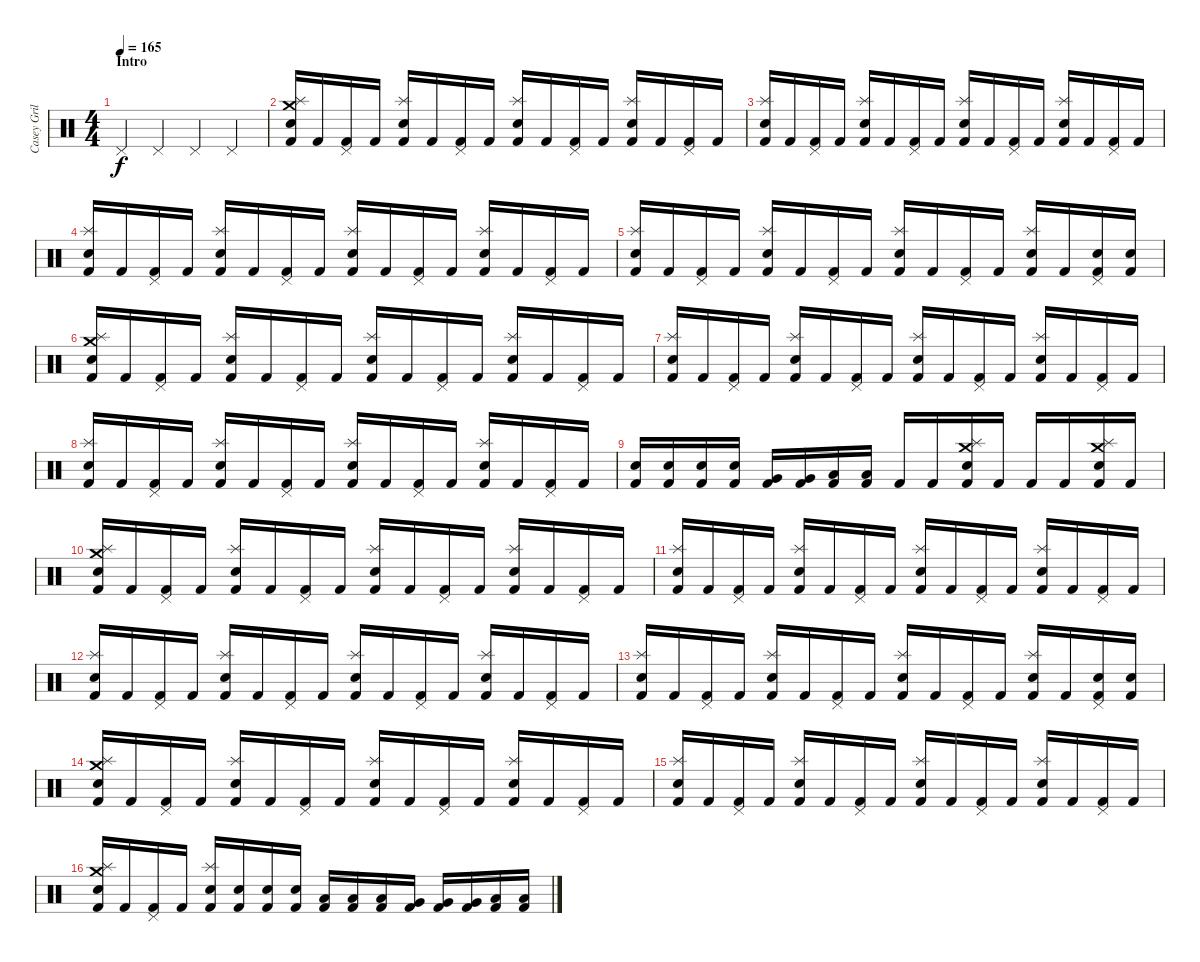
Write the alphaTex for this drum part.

\track ("Casey Grillo" "Casey Gril") {instrument percussion}
\staff {score}
\articulation defaults
\ts (4 4)
\section ("" "Intro")
\tempo 165
\clef neutral
\ks c "Pedal Hi-Hat (hit)".4{dy f} "Pedal Hi-Hat (hit)".4 "Pedal Hi-Hat (hit)".4 "Pedal Hi-Hat (hit)".4
|
("Electric Snare (hit)" "Splash (hit)" "Crash medium (hit)" "Kick (hit) 2").16 "Kick (hit) 2".16 ("Pedal Hi-Hat (hit)" "Kick (hit) 2").16 "Kick (hit) 2".16 ("Electric Snare (hit)" "Splash (hit)" "Kick (hit) 2").16 "Kick (hit) 2".16 ("Pedal Hi-Hat (hit)" "Kick (hit) 2").16 "Kick (hit) 2".16 ("Electric Snare (hit)" "Splash (hit)" "Kick (hit) 2").16 "Kick (hit) 2".16 ("Pedal Hi-Hat (hit)" "Kick (hit) 2").16 "Kick (hit) 2".16 ("Electric Snare (hit)" "Splash (hit)" "Kick (hit) 2").16 "Kick (hit) 2".16 ("Pedal Hi-Hat (hit)" "Kick (hit) 2").16 "Kick (hit) 2".16 |
("Electric Snare (hit)" "Splash (hit)" "Kick (hit) 2").16 "Kick (hit) 2".16 ("Pedal Hi-Hat (hit)" "Kick (hit) 2").16 "Kick (hit) 2".16 ("Electric Snare (hit)" "Splash (hit)" "Kick (hit) 2").16 "Kick (hit) 2".16 ("Pedal Hi-Hat (hit)" "Kick (hit) 2").16 "Kick (hit) 2".16 ("Electric Snare (hit)" "Splash (hit)" "Kick (hit) 2").16 "Kick (hit) 2".16 ("Pedal Hi-Hat (hit)" "Kick (hit) 2").16 "Kick (hit) 2".16 ("Electric Snare (hit)" "Splash (hit)" "Kick (hit) 2").16 "Kick (hit) 2".16 ("Pedal Hi-Hat (hit)" "Kick (hit) 2").16 "Kick (hit) 2".16 |
("Electric Snare (hit)" "Splash (hit)" "Kick (hit) 2").16 "Kick (hit) 2".16 ("Pedal Hi-Hat (hit)" "Kick (hit) 2").16 "Kick (hit) 2".16 ("Electric Snare (hit)" "Splash (hit)" "Kick (hit) 2").16 "Kick (hit) 2".16 ("Pedal Hi-Hat (hit)" "Kick (hit) 2").16 "Kick (hit) 2".16 ("Electric Snare (hit)" "Splash (hit)" "Kick (hit) 2").16 "Kick (hit) 2".16 ("Pedal Hi-Hat (hit)" "Kick (hit) 2").16 "Kick (hit) 2".16 ("Electric Snare (hit)" "Splash (hit)" "Kick (hit) 2").16 "Kick (hit) 2".16 ("Pedal Hi-Hat (hit)" "Kick (hit) 2").16 "Kick (hit) 2".16 |
("Electric Snare (hit)" "Splash (hit)" "Kick (hit) 2").16 "Kick (hit) 2".16 ("Pedal Hi-Hat (hit)" "Kick (hit) 2").16 "Kick (hit) 2".16 ("Electric Snare (hit)" "Splash (hit)" "Kick (hit) 2").16 "Kick (hit) 2".16 ("Pedal Hi-Hat (hit)" "Kick (hit) 2").16 "Kick (hit) 2".16 ("Electric Snare (hit)" "Splash (hit)" "Kick (hit) 2").16 "Kick (hit) 2".16 ("Pedal Hi-Hat (hit)" "Kick (hit) 2").16 "Kick (hit) 2".16 ("Electric Snare (hit)" "Splash (hit)" "Kick (hit) 2").16 "Kick (hit) 2".16 ("Electric Snare (hit)" "Pedal Hi-Hat (hit)" "Kick (hit) 2").16 ("Electric Snare (hit)" "Kick (hit) 2").16 |
("Electric Snare (hit)" "Splash (hit)" "Crash medium (hit)" "Kick (hit) 2").16 "Kick (hit) 2".16 ("Pedal Hi-Hat (hit)" "Kick (hit) 2").16 "Kick (hit) 2".16 ("Electric Snare (hit)" "Splash (hit)" "Kick (hit) 2").16 "Kick (hit) 2".16 ("Pedal Hi-Hat (hit)" "Kick (hit) 2").16 "Kick (hit) 2".16 ("Electric Snare (hit)" "Splash (hit)" "Kick (hit) 2").16 "Kick (hit) 2".16 ("Pedal Hi-Hat (hit)" "Kick (hit) 2").16 "Kick (hit) 2".16 ("Electric Snare (hit)" "Splash (hit)" "Kick (hit) 2").16 "Kick (hit) 2".16 ("Pedal Hi-Hat (hit)" "Kick (hit) 2").16 "Kick (hit) 2".16 |
("Electric Snare (hit)" "Splash (hit)" "Kick (hit) 2").16 "Kick (hit) 2".16 ("Pedal Hi-Hat (hit)" "Kick (hit) 2").16 "Kick (hit) 2".16 ("Electric Snare (hit)" "Splash (hit)" "Kick (hit) 2").16 "Kick (hit) 2".16 ("Pedal Hi-Hat (hit)" "Kick (hit) 2").16 "Kick (hit) 2".16 ("Electric Snare (hit)" "Splash (hit)" "Kick (hit) 2").16 "Kick (hit) 2".16 ("Pedal Hi-Hat (hit)" "Kick (hit) 2").16 "Kick (hit) 2".16 ("Electric Snare (hit)" "Splash (hit)" "Kick (hit) 2").16 "Kick (hit) 2".16 ("Pedal Hi-Hat (hit)" "Kick (hit) 2").16 "Kick (hit) 2".16 |
("Electric Snare (hit)" "Splash (hit)" "Kick (hit) 2").16 "Kick (hit) 2".16 ("Pedal Hi-Hat (hit)" "Kick (hit) 2").16 "Kick (hit) 2".16 ("Electric Snare (hit)" "Splash (hit)" "Kick (hit) 2").16 "Kick (hit) 2".16 ("Pedal Hi-Hat (hit)" "Kick (hit) 2").16 "Kick (hit) 2".16 ("Electric Snare (hit)" "Splash (hit)" "Kick (hit) 2").16 "Kick (hit) 2".16 ("Pedal Hi-Hat (hit)" "Kick (hit) 2").16 "Kick (hit) 2".16 ("Electric Snare (hit)" "Splash (hit)" "Kick (hit) 2").16 "Kick (hit) 2".16 ("Pedal Hi-Hat (hit)" "Kick (hit) 2").16 "Kick (hit) 2".16 |
("Electric Snare (hit)" "Kick (hit) 2").16 ("Electric Snare (hit)" "Kick (hit) 2").16 ("Electric Snare (hit)" "Kick (hit) 2").16 ("Electric Snare (hit)" "Kick (hit) 2").16 ("Very Low Tom (hit)" "Kick (hit) 2").16 ("Very Low Tom (hit)" "Kick (hit) 2").16 ("Low Floor Tom (hit)" "Kick (hit) 2").16 ("Low Floor Tom (hit)" "Kick (hit) 2").16 "Kick (hit) 2".16 "Kick (hit) 2".16 ("Electric Snare (hit)" "Splash (hit)" "Crash medium (hit)" "Kick (hit) 2").16 "Kick (hit) 2".16 "Kick (hit) 2".16 "Kick (hit) 2".16 ("Electric Snare (hit)" "Splash (hit)" "Crash medium (hit)" "Kick (hit) 2").16 "Kick (hit) 2".16 |
("Electric Snare (hit)" "Splash (hit)" "Crash medium (hit)" "Kick (hit) 2").16 "Kick (hit) 2".16 ("Pedal Hi-Hat (hit)" "Kick (hit) 2").16 "Kick (hit) 2".16 ("Electric Snare (hit)" "Splash (hit)" "Kick (hit) 2").16 "Kick (hit) 2".16 ("Pedal Hi-Hat (hit)" "Kick (hit) 2").16 "Kick (hit) 2".16 ("Electric Snare (hit)" "Splash (hit)" "Kick (hit) 2").16 "Kick (hit) 2".16 ("Pedal Hi-Hat (hit)" "Kick (hit) 2").16 "Kick (hit) 2".16 ("Electric Snare (hit)" "Splash (hit)" "Kick (hit) 2").16 "Kick (hit) 2".16 ("Pedal Hi-Hat (hit)" "Kick (hit) 2").16 "Kick (hit) 2".16 |
("Electric Snare (hit)" "Splash (hit)" "Kick (hit) 2").16 "Kick (hit) 2".16 ("Pedal Hi-Hat (hit)" "Kick (hit) 2").16 "Kick (hit) 2".16 ("Electric Snare (hit)" "Splash (hit)" "Kick (hit) 2").16 "Kick (hit) 2".16 ("Pedal Hi-Hat (hit)" "Kick (hit) 2").16 "Kick (hit) 2".16 ("Electric Snare (hit)" "Splash (hit)" "Kick (hit) 2").16 "Kick (hit) 2".16 ("Pedal Hi-Hat (hit)" "Kick (hit) 2").16 "Kick (hit) 2".16 ("Electric Snare (hit)" "Splash (hit)" "Kick (hit) 2").16 "Kick (hit) 2".16 ("Pedal Hi-Hat (hit)" "Kick (hit) 2").16 "Kick (hit) 2".16 |
("Electric Snare (hit)" "Splash (hit)" "Kick (hit) 2").16 "Kick (hit) 2".16 ("Pedal Hi-Hat (hit)" "Kick (hit) 2").16 "Kick (hit) 2".16 ("Electric Snare (hit)" "Splash (hit)" "Kick (hit) 2").16 "Kick (hit) 2".16 ("Pedal Hi-Hat (hit)" "Kick (hit) 2").16 "Kick (hit) 2".16 ("Electric Snare (hit)" "Splash (hit)" "Kick (hit) 2").16 "Kick (hit) 2".16 ("Pedal Hi-Hat (hit)" "Kick (hit) 2").16 "Kick (hit) 2".16 ("Electric Snare (hit)" "Splash (hit)" "Kick (hit) 2").16 "Kick (hit) 2".16 ("Pedal Hi-Hat (hit)" "Kick (hit) 2").16 "Kick (hit) 2".16 |
("Electric Snare (hit)" "Splash (hit)" "Kick (hit) 2").16 "Kick (hit) 2".16 ("Pedal Hi-Hat (hit)" "Kick (hit) 2").16 "Kick (hit) 2".16 ("Electric Snare (hit)" "Splash (hit)" "Kick (hit) 2").16 "Kick (hit) 2".16 ("Pedal Hi-Hat (hit)" "Kick (hit) 2").16 "Kick (hit) 2".16 ("Electric Snare (hit)" "Splash (hit)" "Kick (hit) 2").16 "Kick (hit) 2".16 ("Pedal Hi-Hat (hit)" "Kick (hit) 2").16 "Kick (hit) 2".16 ("Electric Snare (hit)" "Splash (hit)" "Kick (hit) 2").16 "Kick (hit) 2".16 ("Electric Snare (hit)" "Pedal Hi-Hat (hit)" "Kick (hit) 2").16 ("Electric Snare (hit)" "Kick (hit) 2").16 |
("Electric Snare (hit)" "Splash (hit)" "Crash medium (hit)" "Kick (hit) 2").16 "Kick (hit) 2".16 ("Pedal Hi-Hat (hit)" "Kick (hit) 2").16 "Kick (hit) 2".16 ("Electric Snare (hit)" "Splash (hit)" "Kick (hit) 2").16 "Kick (hit) 2".16 ("Pedal Hi-Hat (hit)" "Kick (hit) 2").16 "Kick (hit) 2".16 ("Electric Snare (hit)" "Splash (hit)" "Kick (hit) 2").16 "Kick (hit) 2".16 ("Pedal Hi-Hat (hit)" "Kick (hit) 2").16 "Kick (hit) 2".16 ("Electric Snare (hit)" "Splash (hit)" "Kick (hit) 2").16 "Kick (hit) 2".16 ("Pedal Hi-Hat (hit)" "Kick (hit) 2").16 "Kick (hit) 2".16 |
("Electric Snare (hit)" "Splash (hit)" "Kick (hit) 2").16 "Kick (hit) 2".16 ("Pedal Hi-Hat (hit)" "Kick (hit) 2").16 "Kick (hit) 2".16 ("Electric Snare (hit)" "Splash (hit)" "Kick (hit) 2").16 "Kick (hit) 2".16 ("Pedal Hi-Hat (hit)" "Kick (hit) 2").16 "Kick (hit) 2".16 ("Electric Snare (hit)" "Splash (hit)" "Kick (hit) 2").16 "Kick (hit) 2".16 ("Pedal Hi-Hat (hit)" "Kick (hit) 2").16 "Kick (hit) 2".16 ("Electric Snare (hit)" "Splash (hit)" "Kick (hit) 2").16 "Kick (hit) 2".16 ("Pedal Hi-Hat (hit)" "Kick (hit) 2").16 "Kick (hit) 2".16 |
("Electric Snare (hit)" "Splash (hit)" "Crash medium (hit)" "Kick (hit) 2").16 "Kick (hit) 2".16 ("Pedal Hi-Hat (hit)" "Kick (hit) 2").16 "Kick (hit) 2".16 ("Electric Snare (hit)" "Splash (hit)" "Kick (hit) 2").16 ("Electric Snare (hit)" "Kick (hit) 2").16 ("Electric Snare (hit)" "Kick (hit) 2").16 ("Electric Snare (hit)" "Kick (hit) 2").16 ("Low Tom (hit)" "Kick (hit) 2").16 ("Low Tom (hit)" "Kick (hit) 2").16 ("Low Tom (hit)" "Kick (hit) 2").16 ("Very Low Tom (hit)" "Kick (hit) 2").16 ("Very Low Tom (hit)" "Kick (hit) 2").16 ("Very Low Tom (hit)" "Kick (hit) 2").16 ("Low Floor Tom (hit)" "Kick (hit) 2").16 ("Low Floor Tom (hit)" "Kick (hit) 2").16
